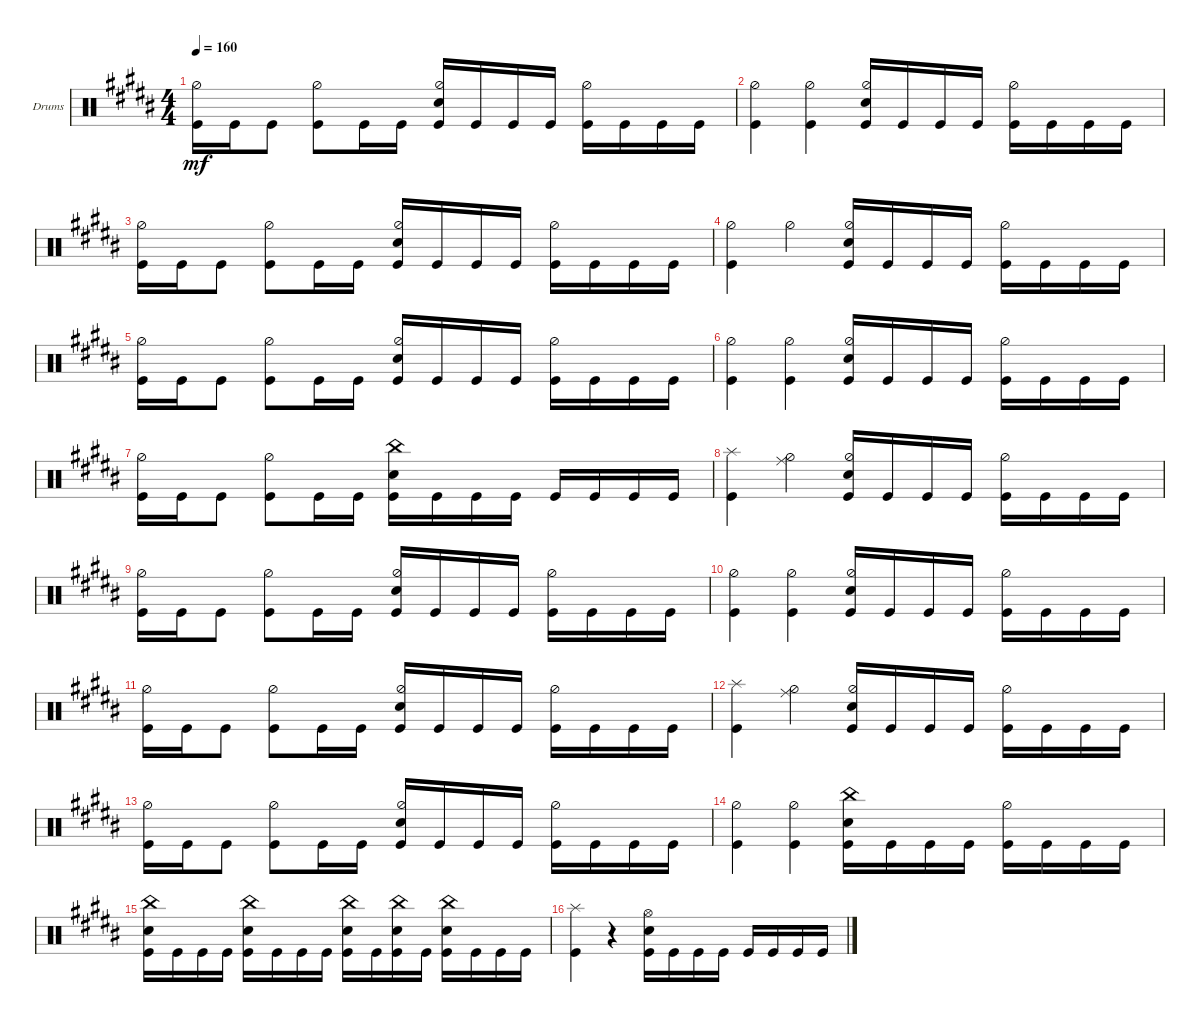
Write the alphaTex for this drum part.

\defaultSystemsLayout 4
\bracketExtendMode groupsimilarinstruments
\firstSystemTrackNameOrientation horizontal
\otherSystemsTrackNameOrientation horizontal
\track ("Drumkit" "Drums") {instrument percussion}
\staff {score}
\articulation defaults
\ts (4 4)
\tempo 160
\clef neutral
\scale
0.333333
\ks b
("Kick (hit)" "Hi-Hat (half)").16{dy mf} "Kick (hit)".16 "Kick (hit)".8 ("Kick (hit)" "Hi-Hat (half)").8 "Kick (hit)".16 "Kick (hit)".16 ("Snare (hit) 2" "Kick (hit)" "Hi-Hat (half)").16 "Kick (hit)".16 "Kick (hit)".16 "Kick (hit)".16 ("Kick (hit)" "Hi-Hat (half)").16 "Kick (hit)".16 "Kick (hit)".16 "Kick (hit)".16 |
\scale
0.333333 ("Kick (hit)" "Hi-Hat (half)").4 ("Kick (hit)" "Hi-Hat (half)").4 ("Kick (hit)" "Snare (hit) 2" "Hi-Hat (half)").16 "Kick (hit)".16 "Kick (hit)".16 "Kick (hit)".16 ("Kick (hit)" "Hi-Hat (half)").16 "Kick (hit)".16 "Kick (hit)".16 "Kick (hit)".16 |
\scale
0.333333 ("Kick (hit)" "Hi-Hat (half)").16 "Kick (hit)".16 "Kick (hit)".8 ("Kick (hit)" "Hi-Hat (half)").8 "Kick (hit)".16 "Kick (hit)".16 ("Snare (hit) 2" "Kick (hit)" "Hi-Hat (half)").16 "Kick (hit)".16 "Kick (hit)".16 "Kick (hit)".16 ("Kick (hit)" "Hi-Hat (half)").16 "Kick (hit)".16 "Kick (hit)".16 "Kick (hit)".16 |
\scale
0.333333 ("Kick (hit)" "Hi-Hat (half)").4 "Hi-Hat (half)".4 ("Kick (hit)" "Snare (hit) 2" "Hi-Hat (half)").16 "Kick (hit)".16 "Kick (hit)".16 "Kick (hit)".16 ("Kick (hit)" "Hi-Hat (half)").16 "Kick (hit)".16 "Kick (hit)".16 "Kick (hit)".16 |
\scale
0.333333 ("Kick (hit)" "Hi-Hat (half)").16 "Kick (hit)".16 "Kick (hit)".8 ("Kick (hit)" "Hi-Hat (half)").8 "Kick (hit)".16 "Kick (hit)".16 ("Snare (hit) 2" "Kick (hit)" "Hi-Hat (half)").16 "Kick (hit)".16 "Kick (hit)".16 "Kick (hit)".16 ("Kick (hit)" "Hi-Hat (half)").16 "Kick (hit)".16 "Kick (hit)".16 "Kick (hit)".16 |
\scale
0.333333 ("Kick (hit)" "Hi-Hat (half)").4 ("Kick (hit)" "Hi-Hat (half)").4 ("Kick (hit)" "Snare (hit) 2" "Hi-Hat (half)").16 "Kick (hit)".16 "Kick (hit)".16 "Kick (hit)".16 ("Kick (hit)" "Hi-Hat (half)").16 "Kick (hit)".16 "Kick (hit)".16 "Kick (hit)".16 |
\scale
0.333333 ("Kick (hit)" "Hi-Hat (half)").16 "Kick (hit)".16 "Kick (hit)".8 ("Kick (hit)" "Hi-Hat (half)").8 "Kick (hit)".16 "Kick (hit)".16 ("Snare (hit) 2" "Kick (hit)" "China (hit)").16 "Kick (hit)".16 "Kick (hit)".16 "Kick (hit)".16 "Kick (hit)".16 "Kick (hit)".16 "Kick (hit)".16 "Kick (hit)".16 |
\scale
0.333333 ("Kick (hit)" "Splash (hit)").4 ("Ride (middle)" "Hi-Hat (half)").4 ("Kick (hit)" "Snare (hit) 2" "Hi-Hat (half)").16 "Kick (hit)".16 "Kick (hit)".16 "Kick (hit)".16 ("Kick (hit)" "Hi-Hat (half)").16 "Kick (hit)".16 "Kick (hit)".16 "Kick (hit)".16 |
\scale
0.333333 ("Kick (hit)" "Hi-Hat (half)").16 "Kick (hit)".16 "Kick (hit)".8 ("Kick (hit)" "Hi-Hat (half)").8 "Kick (hit)".16 "Kick (hit)".16 ("Snare (hit) 2" "Kick (hit)" "Hi-Hat (half)").16 "Kick (hit)".16 "Kick (hit)".16 "Kick (hit)".16 ("Kick (hit)" "Hi-Hat (half)").16 "Kick (hit)".16 "Kick (hit)".16 "Kick (hit)".16 |
\scale
0.333333 ("Kick (hit)" "Hi-Hat (half)").4 ("Kick (hit)" "Hi-Hat (half)").4 ("Kick (hit)" "Snare (hit) 2" "Hi-Hat (half)").16 "Kick (hit)".16 "Kick (hit)".16 "Kick (hit)".16 ("Kick (hit)" "Hi-Hat (half)").16 "Kick (hit)".16 "Kick (hit)".16 "Kick (hit)".16 |
\scale
0.333333 ("Kick (hit)" "Hi-Hat (half)").16 "Kick (hit)".16 "Kick (hit)".8 ("Kick (hit)" "Hi-Hat (half)").8 "Kick (hit)".16 "Kick (hit)".16 ("Snare (hit) 2" "Kick (hit)" "Hi-Hat (half)").16 "Kick (hit)".16 "Kick (hit)".16 "Kick (hit)".16 ("Kick (hit)" "Hi-Hat (half)").16 "Kick (hit)".16 "Kick (hit)".16 "Kick (hit)".16 |
\scale
0.333333 ("Kick (hit)" "Splash (hit)").4 ("Ride (middle)" "Hi-Hat (half)").4 ("Kick (hit)" "Snare (hit) 2" "Hi-Hat (half)").16 "Kick (hit)".16 "Kick (hit)".16 "Kick (hit)".16 ("Kick (hit)" "Hi-Hat (half)").16 "Kick (hit)".16 "Kick (hit)".16 "Kick (hit)".16 |
\scale
0.333333 ("Kick (hit)" "Hi-Hat (half)").16 "Kick (hit)".16 "Kick (hit)".8 ("Kick (hit)" "Hi-Hat (half)").8 "Kick (hit)".16 "Kick (hit)".16 ("Snare (hit) 2" "Kick (hit)" "Hi-Hat (half)").16 "Kick (hit)".16 "Kick (hit)".16 "Kick (hit)".16 ("Kick (hit)" "Hi-Hat (half)").16 "Kick (hit)".16 "Kick (hit)".16 "Kick (hit)".16 |
\scale
0.333333 ("Kick (hit)" "Hi-Hat (half)").4 ("Kick (hit)" "Hi-Hat (half)").4 ("Kick (hit)" "Snare (hit) 2" "China (hit)").16 "Kick (hit)".16 "Kick (hit)".16 "Kick (hit)".16 ("Kick (hit)" "Hi-Hat (half)").16 "Kick (hit)".16 "Kick (hit)".16 "Kick (hit)".16 |
\scale
0.333333 ("Kick (hit)" "Snare (hit) 2" "China (hit)").16 "Kick (hit)".16 "Kick (hit)".16 "Kick (hit)".16 ("Kick (hit)" "Snare (hit) 2" "China (hit)").16 "Kick (hit)".16 "Kick (hit)".16 "Kick (hit)".16 ("Kick (hit)" "Snare (hit) 2" "China (hit)").16 "Kick (hit)".16 ("Kick (hit)" "Snare (hit) 2" "China (hit)").16 "Kick (hit)".16 ("Kick (hit)" "Snare (hit) 2" "China (hit)").16 "Kick (hit)".16 "Kick (hit)".16 "Kick (hit)".16 |
\scale
0.333333 ("Kick (hit)" "Splash (hit)").4 r.4 ("Kick (hit)" "Snare (hit) 2" "Hi-Hat (open)").16 "Kick (hit)".16 "Kick (hit)".16 "Kick (hit)".16 "Kick (hit)".16 "Kick (hit)".16 "Kick (hit)".16 "Kick (hit)".16
